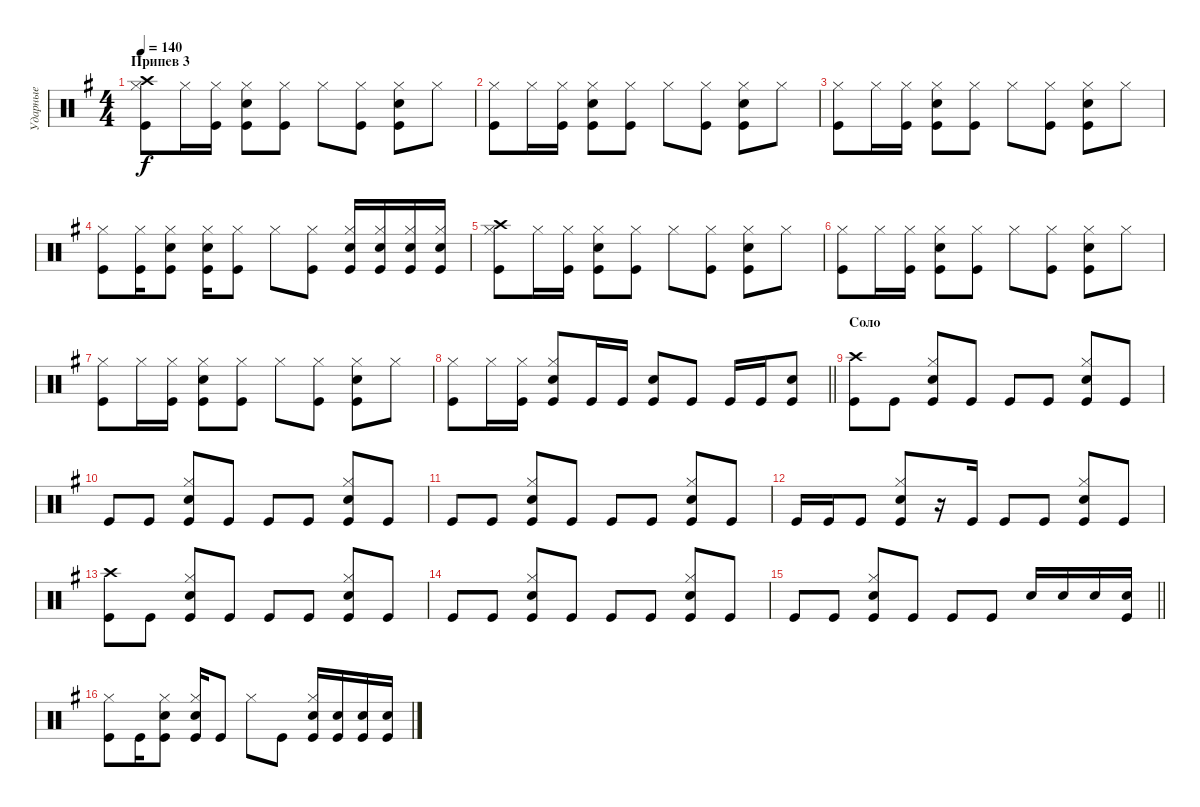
\track ("Ударные" "Ударные") {instrument percussion}
\staff {score}
\articulation defaults
\ts (4 4)
\section ("" "Припев 3")
\tempo 140
\clef neutral
\ks g
("Kick (hit)" "Crash high (hit)" "Hi-Hat (closed)").8{dy f} "Hi-Hat (closed)".16 ("Kick (hit)" "Hi-Hat (closed)").16 ("Kick (hit)" "Snare (hit) 2" "Hi-Hat (closed)").8 ("Kick (hit)" "Hi-Hat (closed)").8 "Hi-Hat (closed)".8 ("Kick (hit)" "Hi-Hat (closed)").8 ("Kick (hit)" "Snare (hit) 2" "Hi-Hat (closed)").8 "Hi-Hat (closed)".8 |
("Kick (hit)" "Hi-Hat (closed)").8 "Hi-Hat (closed)".16 ("Kick (hit)" "Hi-Hat (closed)").16 ("Kick (hit)" "Snare (hit) 2" "Hi-Hat (closed)").8 ("Kick (hit)" "Hi-Hat (closed)").8 "Hi-Hat (closed)".8 ("Kick (hit)" "Hi-Hat (closed)").8 ("Kick (hit)" "Snare (hit) 2" "Hi-Hat (closed)").8 "Hi-Hat (closed)".8 |
("Kick (hit)" "Hi-Hat (closed)").8 "Hi-Hat (closed)".16 ("Kick (hit)" "Hi-Hat (closed)").16 ("Kick (hit)" "Snare (hit) 2" "Hi-Hat (closed)").8 ("Kick (hit)" "Hi-Hat (closed)").8 "Hi-Hat (closed)".8 ("Kick (hit)" "Hi-Hat (closed)").8 ("Kick (hit)" "Snare (hit) 2" "Hi-Hat (closed)").8 "Hi-Hat (closed)".8 |
("Kick (hit)" "Hi-Hat (closed)").8 ("Kick (hit)" "Hi-Hat (closed)").16 ("Kick (hit)" "Snare (hit) 2" "Hi-Hat (closed)").8 ("Kick (hit)" "Snare (hit) 2" "Hi-Hat (closed)").16 ("Kick (hit)" "Hi-Hat (closed)").8 "Hi-Hat (closed)".8 ("Kick (hit)" "Hi-Hat (closed)").8 ("Kick (hit)" "Snare (hit) 2" "Hi-Hat (closed)").16 ("Kick (hit)" "Snare (hit) 2" "Hi-Hat (closed)").16 ("Kick (hit)" "Snare (hit) 2" "Hi-Hat (closed)").16 ("Kick (hit)" "Snare (hit) 2" "Hi-Hat (closed)").16 |
("Kick (hit)" "Crash high (hit)" "Hi-Hat (closed)").8 "Hi-Hat (closed)".16 ("Kick (hit)" "Hi-Hat (closed)").16 ("Kick (hit)" "Snare (hit) 2" "Hi-Hat (closed)").8 ("Kick (hit)" "Hi-Hat (closed)").8 "Hi-Hat (closed)".8 ("Kick (hit)" "Hi-Hat (closed)").8 ("Kick (hit)" "Snare (hit) 2" "Hi-Hat (closed)").8 "Hi-Hat (closed)".8 |
("Kick (hit)" "Hi-Hat (closed)").8 "Hi-Hat (closed)".16 ("Kick (hit)" "Hi-Hat (closed)").16 ("Kick (hit)" "Snare (hit) 2" "Hi-Hat (closed)").8 ("Kick (hit)" "Hi-Hat (closed)").8 "Hi-Hat (closed)".8 ("Kick (hit)" "Hi-Hat (closed)").8 ("Kick (hit)" "Snare (hit) 2" "Hi-Hat (closed)").8 "Hi-Hat (closed)".8 |
("Kick (hit)" "Hi-Hat (closed)").8 "Hi-Hat (closed)".16 ("Kick (hit)" "Hi-Hat (closed)").16 ("Kick (hit)" "Snare (hit) 2" "Hi-Hat (closed)").8 ("Kick (hit)" "Hi-Hat (closed)").8 "Hi-Hat (closed)".8 ("Kick (hit)" "Hi-Hat (closed)").8 ("Kick (hit)" "Snare (hit) 2" "Hi-Hat (closed)").8 "Hi-Hat (closed)".8 |
\barLineRight lightlight
("Kick (hit)" "Hi-Hat (closed)").8 "Hi-Hat (closed)".16 ("Kick (hit)" "Hi-Hat (closed)").16 ("Kick (hit)" "Snare (hit) 2" "Hi-Hat (closed)").8 "Kick (hit)".16 "Kick (hit)".16 ("Kick (hit)" "Snare (hit) 2").8 "Kick (hit)".8 "Kick (hit)".16 "Kick (hit)".16 ("Kick (hit)" "Snare (hit) 2").8 |
\section ("" "Соло")
("Kick (hit)" "Crash high (hit)").8 "Kick (hit)".8 ("Kick (hit)" "Snare (hit) 2" "Hi-Hat (closed)").8 "Kick (hit)".8 "Kick (hit)".8 "Kick (hit)".8 ("Kick (hit)" "Snare (hit) 2" "Hi-Hat (closed)").8 "Kick (hit)".8 |
"Kick (hit)".8 "Kick (hit)".8 ("Kick (hit)" "Snare (hit) 2" "Hi-Hat (closed)").8 "Kick (hit)".8 "Kick (hit)".8 "Kick (hit)".8 ("Kick (hit)" "Snare (hit) 2" "Hi-Hat (closed)").8 "Kick (hit)".8 |
"Kick (hit)".8 "Kick (hit)".8 ("Kick (hit)" "Snare (hit) 2" "Hi-Hat (closed)").8 "Kick (hit)".8 "Kick (hit)".8 "Kick (hit)".8 ("Kick (hit)" "Snare (hit) 2" "Hi-Hat (closed)").8 "Kick (hit)".8 |
"Kick (hit)".16 "Kick (hit)".16 "Kick (hit)".8 ("Kick (hit)" "Snare (hit) 2" "Hi-Hat (closed)").8 r.16 "Kick (hit)".16 "Kick (hit)".8 "Kick (hit)".8 ("Kick (hit)" "Snare (hit) 2" "Hi-Hat (closed)").8 "Kick (hit)".8 |
("Kick (hit)" "Crash high (hit)").8 "Kick (hit)".8 ("Kick (hit)" "Snare (hit) 2" "Hi-Hat (closed)").8 "Kick (hit)".8 "Kick (hit)".8 "Kick (hit)".8 ("Kick (hit)" "Snare (hit) 2" "Hi-Hat (closed)").8 "Kick (hit)".8 |
"Kick (hit)".8 "Kick (hit)".8 ("Kick (hit)" "Snare (hit) 2" "Hi-Hat (closed)").8 "Kick (hit)".8 "Kick (hit)".8 "Kick (hit)".8 ("Kick (hit)" "Snare (hit) 2" "Hi-Hat (closed)").8 "Kick (hit)".8 |
\barLineRight lightlight "Kick (hit)".8 "Kick (hit)".8
("Kick (hit)" "Snare (hit) 2" "Hi-Hat (closed)").8 "Kick (hit)".8 "Kick (hit)".8 "Kick (hit)".8 "Snare (hit) 2".16 "Snare (hit) 2".16 "Snare (hit) 2".16 ("Kick (hit)" "Snare (hit) 2").16 |
("Kick (hit)" "Hi-Hat (closed)").8 "Kick (hit)".16 ("Kick (hit)" "Snare (hit) 2" "Hi-Hat (closed)").8 ("Kick (hit)" "Snare (hit) 2" "Hi-Hat (closed)").16 "Kick (hit)".8 "Hi-Hat (closed)".8 "Kick (hit)".8 ("Kick (hit)" "Snare (hit) 2" "Hi-Hat (closed)").16 ("Kick (hit)" "Snare (hit) 2").16 ("Kick (hit)" "Snare (hit) 2").16 ("Kick (hit)" "Snare (hit) 2").16
